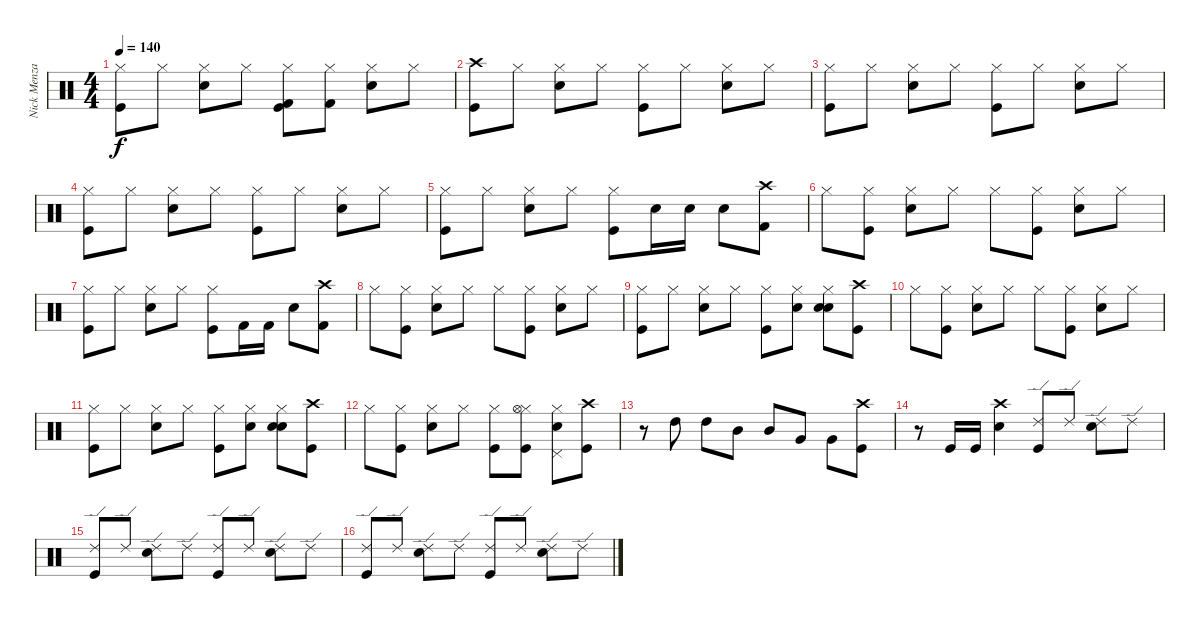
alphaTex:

\track ("Nick Menza (Drums)" "Nick Menza") {instrument percussion}
\staff {score}
\articulation defaults
\ts (4 4)
\tempo 140
\clef neutral
\ks c
("Hi-Hat (closed)" "Kick (hit)").8{dy f} "Hi-Hat (closed)".8 ("Hi-Hat (closed)" "Snare (hit) 2").8 "Hi-Hat (closed)".8 ("Hi-Hat (closed)" "Kick (hit) 2" "Kick (hit)").8 ("Hi-Hat (closed)" "Kick (hit) 2").8 ("Hi-Hat (closed)" "Snare (hit) 2").8 "Hi-Hat (closed)".8 |
("Crash high (hit)" "Kick (hit)").8 "Hi-Hat (closed)".8 ("Hi-Hat (closed)" "Snare (hit) 2").8 "Hi-Hat (closed)".8 ("Hi-Hat (closed)" "Kick (hit)").8 "Hi-Hat (closed)".8 ("Hi-Hat (closed)" "Snare (hit) 2").8 "Hi-Hat (closed)".8 |
("Hi-Hat (closed)" "Kick (hit)").8 "Hi-Hat (closed)".8 ("Hi-Hat (closed)" "Snare (hit) 2").8 "Hi-Hat (closed)".8 ("Hi-Hat (closed)" "Kick (hit)").8 "Hi-Hat (closed)".8 ("Hi-Hat (closed)" "Snare (hit) 2").8 "Hi-Hat (closed)".8 |
("Hi-Hat (closed)" "Kick (hit)").8 "Hi-Hat (closed)".8 ("Hi-Hat (closed)" "Snare (hit) 2").8 "Hi-Hat (closed)".8 ("Hi-Hat (closed)" "Kick (hit)").8 "Hi-Hat (closed)".8 ("Hi-Hat (closed)" "Snare (hit) 2").8 "Hi-Hat (closed)".8 |
("Hi-Hat (closed)" "Kick (hit)").8 "Hi-Hat (closed)".8 ("Hi-Hat (closed)" "Snare (hit) 2").8 "Hi-Hat (closed)".8 ("Hi-Hat (closed)" "Kick (hit)").8 "Electric Snare (hit)".16 "Electric Snare (hit)".16 "Electric Snare (hit)".8 ("Crash high (hit)" "Kick (hit) 2").8 |
"Hi-Hat (closed)".8 ("Hi-Hat (closed)" "Kick (hit)").8 ("Hi-Hat (closed)" "Snare (hit) 2").8 "Hi-Hat (closed)".8 "Hi-Hat (closed)".8 ("Hi-Hat (closed)" "Kick (hit)").8 ("Hi-Hat (closed)" "Snare (hit) 2").8 "Hi-Hat (closed)".8 |
("Hi-Hat (closed)" "Kick (hit)").8 "Hi-Hat (closed)".8 ("Hi-Hat (closed)" "Snare (hit) 2").8 "Hi-Hat (closed)".8 ("Hi-Hat (closed)" "Kick (hit)").8 "Kick (hit) 2".16 "Kick (hit) 2".16 "Electric Snare (hit)".8 ("Crash high (hit)" "Kick (hit) 2").8 |
"Hi-Hat (closed)".8 ("Hi-Hat (closed)" "Kick (hit)").8 ("Hi-Hat (closed)" "Snare (hit) 2").8 "Hi-Hat (closed)".8 "Hi-Hat (closed)".8 ("Hi-Hat (closed)" "Kick (hit)").8 ("Hi-Hat (closed)" "Snare (hit) 2").8 "Hi-Hat (closed)".8 |
("Hi-Hat (closed)" "Kick (hit)").8 "Hi-Hat (closed)".8 ("Hi-Hat (closed)" "Snare (hit) 2").8 "Hi-Hat (closed)".8 ("Hi-Hat (closed)" "Kick (hit)").8 ("Hi-Hat (closed)" "Snare (hit) 2").8 ("Hi-Hat (closed)" "Snare (hit) 2" "Electric Snare (hit)").8 ("Crash high (hit)" "Kick (hit)").8 |
"Hi-Hat (closed)".8 ("Hi-Hat (closed)" "Kick (hit)").8 ("Hi-Hat (closed)" "Snare (hit) 2").8 "Hi-Hat (closed)".8 "Hi-Hat (closed)".8 ("Hi-Hat (closed)" "Kick (hit)").8 ("Hi-Hat (closed)" "Snare (hit) 2").8 "Hi-Hat (closed)".8 |
("Hi-Hat (closed)" "Kick (hit)").8 "Hi-Hat (closed)".8 ("Hi-Hat (closed)" "Snare (hit) 2").8 "Hi-Hat (closed)".8 ("Hi-Hat (closed)" "Kick (hit)").8 ("Hi-Hat (closed)" "Electric Snare (hit)").8 ("Hi-Hat (closed)" "Snare (hit) 2" "Electric Snare (hit)").8 ("Crash high (hit)" "Kick (hit)").8 |
"Hi-Hat (closed)".8 ("Hi-Hat (closed)" "Kick (hit)").8 ("Hi-Hat (closed)" "Snare (hit) 2").8 "Hi-Hat (closed)".8 ("Hi-Hat (closed)" "Kick (hit)").8 ("Hi-Hat (closed)" "Hi-Hat (open)" "Kick (hit)").8 ("Hi-Hat (closed)" "Snare (hit) 2" "Pedal Hi-Hat (hit)").8 ("Crash high (hit)" "Kick (hit)").8 |
r.8 "High Tom (hit)".8 "High Tom (hit)".8 "Mid Tom (hit)".8 "Mid Tom (hit)".8 "Very Low Tom (hit)".8 "Very Low Tom (hit)".8 ("Crash high (hit)" "Kick (hit)").8 |
r.8 "Kick (hit)".16 "Kick (hit)".16 ("Crash high (hit)" "Snare (hit) 2").4 ("Ride (edge) 2" "Kick (hit)").8 "Ride (edge) 2".8 ("Ride (edge) 2" "Snare (hit) 2").8 "Ride (edge) 2".8 |
("Ride (edge) 2" "Kick (hit)").8 "Ride (edge) 2".8 ("Ride (edge) 2" "Snare (hit) 2").8 "Ride (edge) 2".8 ("Ride (edge) 2" "Kick (hit)").8 "Ride (edge) 2".8 ("Ride (edge) 2" "Snare (hit) 2").8 "Ride (edge) 2".8 |
("Ride (edge) 2" "Kick (hit)").8 "Ride (edge) 2".8 ("Ride (edge) 2" "Snare (hit) 2").8 "Ride (edge) 2".8 ("Ride (edge) 2" "Kick (hit)").8 "Ride (edge) 2".8 ("Ride (edge) 2" "Snare (hit) 2").8 "Ride (edge) 2".8
